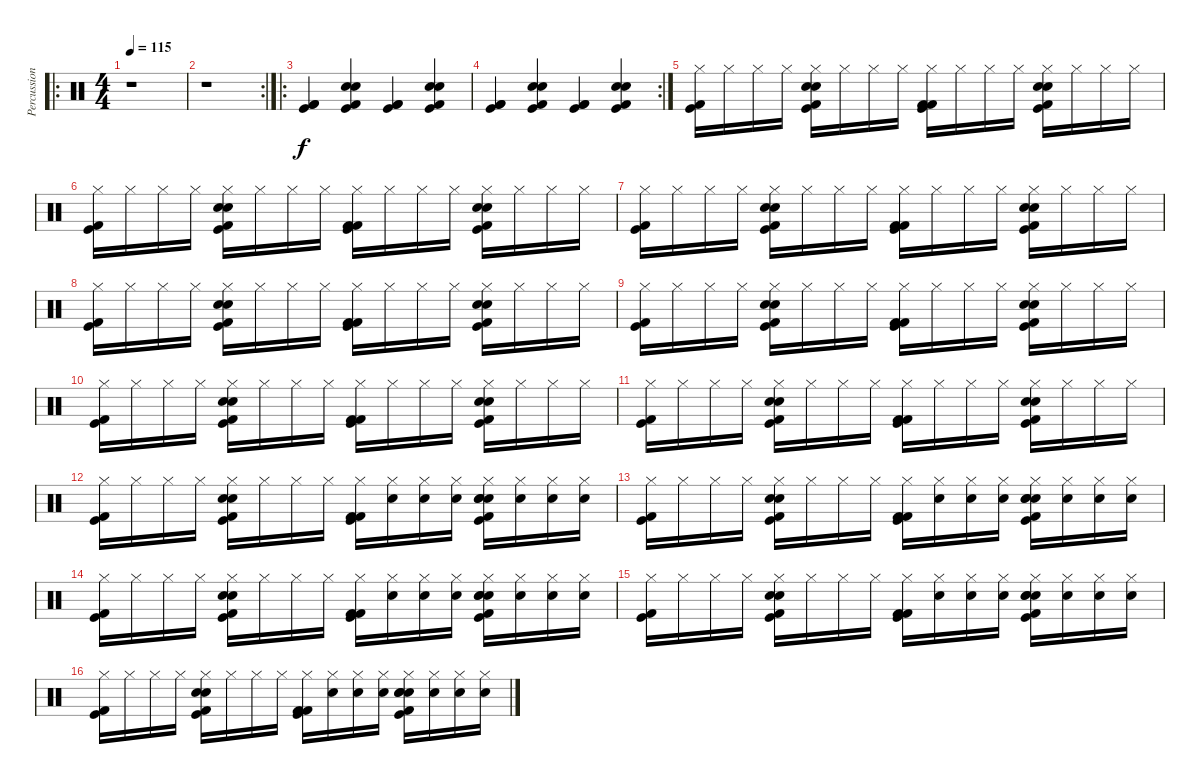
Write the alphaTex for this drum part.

\track ("Percussion" "Percussion") {instrument percussion}
\staff {score}
\articulation defaults
\ro
\ts (4 4)
\tempo 115
\clef neutral
\ks c
r.1{dy f} |
\rc 2
r.1 |
\ro
("Kick (hit) 2" "Kick (hit) 2" "Kick (hit)").4 ("Electric Snare (hit)" "Snare (hit) 2" "Kick (hit) 2" "Kick (hit)").4 ("Kick (hit) 2" "Kick (hit) 2" "Kick (hit)").4 ("Electric Snare (hit)" "Snare (hit) 2" "Kick (hit) 2" "Kick (hit)").4 |
\rc 2
("Kick (hit) 2" "Kick (hit) 2" "Kick (hit)").4 ("Snare (hit) 2" "Electric Snare (hit)" "Kick (hit) 2" "Kick (hit)").4 ("Kick (hit) 2" "Kick (hit) 2" "Kick (hit)").4 ("Snare (hit) 2" "Electric Snare (hit)" "Kick (hit) 2" "Kick (hit)").4 |
("Hi-Hat (closed)" "Kick (hit) 2" "Kick (hit)").16 "Hi-Hat (closed)".16 "Hi-Hat (closed)".16 "Hi-Hat (closed)".16 ("Hi-Hat (closed)" "Snare (hit) 2" "Electric Snare (hit)" "Kick (hit) 2" "Kick (hit)").16 "Hi-Hat (closed)".16 "Hi-Hat (closed)".16 "Hi-Hat (closed)".16 ("Hi-Hat (closed)" "Kick (hit) 2" "Kick (hit) 2" "Kick (hit)").16 "Hi-Hat (closed)".16 "Hi-Hat (closed)".16 "Hi-Hat (closed)".16 ("Hi-Hat (closed)" "Snare (hit) 2" "Electric Snare (hit)" "Kick (hit) 2" "Kick (hit)").16 "Hi-Hat (closed)".16 "Hi-Hat (closed)".16 "Hi-Hat (closed)".16 |
("Hi-Hat (closed)" "Kick (hit) 2" "Kick (hit)").16 "Hi-Hat (closed)".16 "Hi-Hat (closed)".16 "Hi-Hat (closed)".16 ("Hi-Hat (closed)" "Snare (hit) 2" "Electric Snare (hit)" "Kick (hit) 2" "Kick (hit)").16 "Hi-Hat (closed)".16 "Hi-Hat (closed)".16 "Hi-Hat (closed)".16 ("Hi-Hat (closed)" "Kick (hit) 2" "Kick (hit) 2" "Kick (hit)").16 "Hi-Hat (closed)".16 "Hi-Hat (closed)".16 "Hi-Hat (closed)".16 ("Hi-Hat (closed)" "Snare (hit) 2" "Electric Snare (hit)" "Kick (hit) 2" "Kick (hit)").16 "Hi-Hat (closed)".16 "Hi-Hat (closed)".16 "Hi-Hat (closed)".16 |
("Hi-Hat (closed)" "Kick (hit) 2" "Kick (hit)").16 "Hi-Hat (closed)".16 "Hi-Hat (closed)".16 "Hi-Hat (closed)".16 ("Hi-Hat (closed)" "Snare (hit) 2" "Electric Snare (hit)" "Kick (hit) 2" "Kick (hit)").16 "Hi-Hat (closed)".16 "Hi-Hat (closed)".16 "Hi-Hat (closed)".16 ("Hi-Hat (closed)" "Kick (hit) 2" "Kick (hit) 2" "Kick (hit)").16 "Hi-Hat (closed)".16 "Hi-Hat (closed)".16 "Hi-Hat (closed)".16 ("Hi-Hat (closed)" "Snare (hit) 2" "Electric Snare (hit)" "Kick (hit) 2" "Kick (hit)").16 "Hi-Hat (closed)".16 "Hi-Hat (closed)".16 "Hi-Hat (closed)".16 |
("Hi-Hat (closed)" "Kick (hit) 2" "Kick (hit)").16 "Hi-Hat (closed)".16 "Hi-Hat (closed)".16 "Hi-Hat (closed)".16 ("Hi-Hat (closed)" "Snare (hit) 2" "Electric Snare (hit)" "Kick (hit) 2" "Kick (hit)").16 "Hi-Hat (closed)".16 "Hi-Hat (closed)".16 "Hi-Hat (closed)".16 ("Hi-Hat (closed)" "Kick (hit) 2" "Kick (hit) 2" "Kick (hit)").16 "Hi-Hat (closed)".16 "Hi-Hat (closed)".16 "Hi-Hat (closed)".16 ("Hi-Hat (closed)" "Snare (hit) 2" "Electric Snare (hit)" "Kick (hit) 2" "Kick (hit)").16 "Hi-Hat (closed)".16 "Hi-Hat (closed)".16 "Hi-Hat (closed)".16 |
("Hi-Hat (closed)" "Kick (hit) 2" "Kick (hit)").16 "Hi-Hat (closed)".16 "Hi-Hat (closed)".16 "Hi-Hat (closed)".16 ("Hi-Hat (closed)" "Snare (hit) 2" "Electric Snare (hit)" "Kick (hit) 2" "Kick (hit)").16 "Hi-Hat (closed)".16 "Hi-Hat (closed)".16 "Hi-Hat (closed)".16 ("Hi-Hat (closed)" "Kick (hit) 2" "Kick (hit) 2" "Kick (hit)").16 "Hi-Hat (closed)".16 "Hi-Hat (closed)".16 "Hi-Hat (closed)".16 ("Hi-Hat (closed)" "Snare (hit) 2" "Electric Snare (hit)" "Kick (hit) 2" "Kick (hit)").16 "Hi-Hat (closed)".16 "Hi-Hat (closed)".16 "Hi-Hat (closed)".16 |
("Hi-Hat (closed)" "Kick (hit) 2" "Kick (hit)").16 "Hi-Hat (closed)".16 "Hi-Hat (closed)".16 "Hi-Hat (closed)".16 ("Hi-Hat (closed)" "Snare (hit) 2" "Electric Snare (hit)" "Kick (hit) 2" "Kick (hit)").16 "Hi-Hat (closed)".16 "Hi-Hat (closed)".16 "Hi-Hat (closed)".16 ("Hi-Hat (closed)" "Kick (hit) 2" "Kick (hit) 2" "Kick (hit)").16 "Hi-Hat (closed)".16 "Hi-Hat (closed)".16 "Hi-Hat (closed)".16 ("Hi-Hat (closed)" "Snare (hit) 2" "Electric Snare (hit)" "Kick (hit) 2" "Kick (hit)").16 "Hi-Hat (closed)".16 "Hi-Hat (closed)".16 "Hi-Hat (closed)".16 |
("Hi-Hat (closed)" "Kick (hit) 2" "Kick (hit)").16 "Hi-Hat (closed)".16 "Hi-Hat (closed)".16 "Hi-Hat (closed)".16 ("Hi-Hat (closed)" "Snare (hit) 2" "Electric Snare (hit)" "Kick (hit) 2" "Kick (hit)").16 "Hi-Hat (closed)".16 "Hi-Hat (closed)".16 "Hi-Hat (closed)".16 ("Hi-Hat (closed)" "Kick (hit) 2" "Kick (hit) 2" "Kick (hit)").16 "Hi-Hat (closed)".16 "Hi-Hat (closed)".16 "Hi-Hat (closed)".16 ("Hi-Hat (closed)" "Snare (hit) 2" "Electric Snare (hit)" "Kick (hit) 2" "Kick (hit)").16 "Hi-Hat (closed)".16 "Hi-Hat (closed)".16 "Hi-Hat (closed)".16 |
("Hi-Hat (closed)" "Kick (hit) 2" "Kick (hit)").16 "Hi-Hat (closed)".16 "Hi-Hat (closed)".16 "Hi-Hat (closed)".16 ("Hi-Hat (closed)" "Snare (hit) 2" "Electric Snare (hit)" "Kick (hit) 2" "Kick (hit)").16 "Hi-Hat (closed)".16 "Hi-Hat (closed)".16 "Hi-Hat (closed)".16 ("Hi-Hat (closed)" "Kick (hit) 2" "Kick (hit) 2" "Kick (hit)").16 ("Hi-Hat (closed)" "Hand Clap (hit)").16 ("Hi-Hat (closed)" "Hand Clap (hit)").16 ("Hi-Hat (closed)" "Hand Clap (hit)").16 ("Hi-Hat (closed)" "Snare (hit) 2" "Electric Snare (hit)" "Kick (hit) 2" "Hand Clap (hit)" "Kick (hit)").16 ("Hi-Hat (closed)" "Hand Clap (hit)").16 ("Hi-Hat (closed)" "Hand Clap (hit)").16 ("Hi-Hat (closed)" "Hand Clap (hit)").16 |
("Hi-Hat (closed)" "Kick (hit) 2" "Kick (hit)").16 "Hi-Hat (closed)".16 "Hi-Hat (closed)".16 "Hi-Hat (closed)".16 ("Hi-Hat (closed)" "Snare (hit) 2" "Electric Snare (hit)" "Kick (hit) 2" "Kick (hit)").16 "Hi-Hat (closed)".16 "Hi-Hat (closed)".16 "Hi-Hat (closed)".16 ("Hi-Hat (closed)" "Kick (hit) 2" "Kick (hit) 2" "Kick (hit)").16 ("Hi-Hat (closed)" "Hand Clap (hit)").16 ("Hi-Hat (closed)" "Hand Clap (hit)").16 ("Hi-Hat (closed)" "Hand Clap (hit)").16 ("Hi-Hat (closed)" "Snare (hit) 2" "Electric Snare (hit)" "Kick (hit) 2" "Hand Clap (hit)" "Kick (hit)").16 ("Hi-Hat (closed)" "Hand Clap (hit)").16 ("Hi-Hat (closed)" "Hand Clap (hit)").16 ("Hi-Hat (closed)" "Hand Clap (hit)").16 |
("Hi-Hat (closed)" "Kick (hit) 2" "Kick (hit)").16 "Hi-Hat (closed)".16 "Hi-Hat (closed)".16 "Hi-Hat (closed)".16 ("Hi-Hat (closed)" "Snare (hit) 2" "Electric Snare (hit)" "Kick (hit) 2" "Kick (hit)").16 "Hi-Hat (closed)".16 "Hi-Hat (closed)".16 "Hi-Hat (closed)".16 ("Hi-Hat (closed)" "Kick (hit) 2" "Kick (hit) 2" "Kick (hit)").16 ("Hi-Hat (closed)" "Hand Clap (hit)").16 ("Hi-Hat (closed)" "Hand Clap (hit)").16 ("Hi-Hat (closed)" "Hand Clap (hit)").16 ("Hi-Hat (closed)" "Snare (hit) 2" "Electric Snare (hit)" "Kick (hit) 2" "Hand Clap (hit)" "Kick (hit)").16 ("Hi-Hat (closed)" "Hand Clap (hit)").16 ("Hi-Hat (closed)" "Hand Clap (hit)").16 ("Hi-Hat (closed)" "Hand Clap (hit)").16 |
("Hi-Hat (closed)" "Kick (hit) 2" "Kick (hit)").16 "Hi-Hat (closed)".16 "Hi-Hat (closed)".16 "Hi-Hat (closed)".16 ("Hi-Hat (closed)" "Snare (hit) 2" "Electric Snare (hit)" "Kick (hit) 2" "Kick (hit)").16 "Hi-Hat (closed)".16 "Hi-Hat (closed)".16 "Hi-Hat (closed)".16 ("Hi-Hat (closed)" "Kick (hit) 2" "Kick (hit) 2" "Kick (hit)").16 ("Hi-Hat (closed)" "Hand Clap (hit)").16 ("Hi-Hat (closed)" "Hand Clap (hit)").16 ("Hi-Hat (closed)" "Hand Clap (hit)").16 ("Hi-Hat (closed)" "Snare (hit) 2" "Electric Snare (hit)" "Kick (hit) 2" "Hand Clap (hit)" "Kick (hit)").16 ("Hi-Hat (closed)" "Hand Clap (hit)").16 ("Hi-Hat (closed)" "Hand Clap (hit)").16 ("Hi-Hat (closed)" "Hand Clap (hit)").16 |
("Hi-Hat (closed)" "Kick (hit) 2" "Kick (hit)").16 "Hi-Hat (closed)".16 "Hi-Hat (closed)".16 "Hi-Hat (closed)".16 ("Hi-Hat (closed)" "Snare (hit) 2" "Electric Snare (hit)" "Kick (hit) 2" "Kick (hit)").16 "Hi-Hat (closed)".16 "Hi-Hat (closed)".16 "Hi-Hat (closed)".16 ("Hi-Hat (closed)" "Kick (hit) 2" "Kick (hit) 2" "Kick (hit)").16 ("Hi-Hat (closed)" "Hand Clap (hit)").16 ("Hi-Hat (closed)" "Hand Clap (hit)").16 ("Hi-Hat (closed)" "Hand Clap (hit)").16 ("Hi-Hat (closed)" "Snare (hit) 2" "Electric Snare (hit)" "Kick (hit) 2" "Hand Clap (hit)" "Kick (hit)").16 ("Hi-Hat (closed)" "Hand Clap (hit)").16 ("Hi-Hat (closed)" "Hand Clap (hit)").16 ("Hi-Hat (closed)" "Hand Clap (hit)").16
